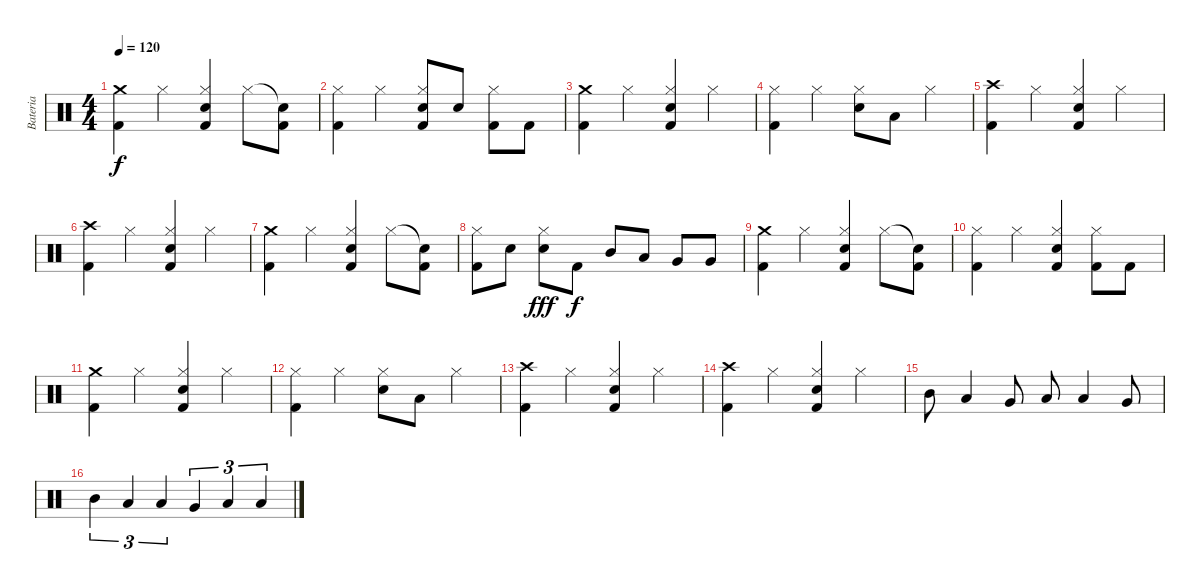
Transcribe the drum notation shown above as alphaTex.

\track ("Bateria" "Bateria") {instrument percussion}
\staff {score}
\articulation defaults
\ts (4 4)
\tempo 120
\clef neutral
\ks c
("Crash medium (hit)" "Kick (hit) 2").4{dy f} "Hi-Hat (closed)".4 ("Hi-Hat (closed)" "Electric Snare (hit)" "Kick (hit) 2").4 "Hi-Hat (closed)".8 ("Snare (hit)"{t} "Kick (hit) 2").8 |
("Hi-Hat (closed)" "Kick (hit) 2").4 "Hi-Hat (closed)".4 ("Hi-Hat (closed)" "Electric Snare (hit)" "Kick (hit) 2").8 "Electric Snare (hit)".8 ("Hi-Hat (closed)" "Kick (hit) 2").8 "Kick (hit) 2".8 |
("Crash medium (hit)" "Kick (hit) 2").4 "Hi-Hat (closed)".4 ("Hi-Hat (closed)" "Electric Snare (hit)" "Kick (hit) 2").4 "Hi-Hat (closed)".4 |
("Hi-Hat (closed)" "Kick (hit) 2").4 "Hi-Hat (closed)".4 ("Hi-Hat (closed)" "Electric Snare (hit)").8 "Low Tom (hit)".8 "Hi-Hat (closed)".4 |
("Crash high (hit)" "Kick (hit) 2").4 "Hi-Hat (closed)".4 ("Hi-Hat (closed)" "Electric Snare (hit)" "Kick (hit) 2").4 "Hi-Hat (closed)".4 |
("Crash high (hit)" "Kick (hit) 2").4 "Hi-Hat (closed)".4 ("Hi-Hat (closed)" "Electric Snare (hit)" "Kick (hit) 2").4 "Hi-Hat (closed)".4 |
("Crash medium (hit)" "Kick (hit) 2").4 "Hi-Hat (closed)".4 ("Hi-Hat (closed)" "Electric Snare (hit)" "Kick (hit) 2").4 "Hi-Hat (closed)".8 ("Snare (hit)"{t} "Kick (hit) 2").8 |
("Hi-Hat (closed)" "Kick (hit) 2").8 "Electric Snare (hit)".8 ("Hi-Hat (closed)" "Electric Snare (hit)").8{dy fff} "Kick (hit) 2".8{dy f} "Mid Tom (hit)".8 "Low Tom (hit)".8 "Very Low Tom (hit)".8 "Very Low Tom (hit)".8 |
("Crash medium (hit)" "Kick (hit) 2").4 "Hi-Hat (closed)".4 ("Hi-Hat (closed)" "Electric Snare (hit)" "Kick (hit) 2").4 "Hi-Hat (closed)".8 ("Snare (hit)"{t} "Kick (hit) 2").8 |
("Hi-Hat (closed)" "Kick (hit) 2").4 "Hi-Hat (closed)".4 ("Hi-Hat (closed)" "Electric Snare (hit)" "Kick (hit) 2").4 ("Hi-Hat (closed)" "Kick (hit) 2").8 "Kick (hit) 2".8 |
("Crash medium (hit)" "Kick (hit) 2").4 "Hi-Hat (closed)".4 ("Hi-Hat (closed)" "Electric Snare (hit)" "Kick (hit) 2").4 "Hi-Hat (closed)".4 |
("Hi-Hat (closed)" "Kick (hit) 2").4 "Hi-Hat (closed)".4 ("Hi-Hat (closed)" "Electric Snare (hit)").8 "Low Tom (hit)".8 "Hi-Hat (closed)".4 |
("Crash high (hit)" "Kick (hit) 2").4 "Hi-Hat (closed)".4 ("Hi-Hat (closed)" "Electric Snare (hit)" "Kick (hit) 2").4 "Hi-Hat (closed)".4 |
("Crash high (hit)" "Kick (hit) 2").4 "Hi-Hat (closed)".4 ("Hi-Hat (closed)" "Electric Snare (hit)" "Kick (hit) 2").4 "Hi-Hat (closed)".4 |
"Mid Tom (hit)".8 "Low Tom (hit)".4 "Very Low Tom (hit)".8 "Low Tom (hit)".8 "Low Tom (hit)".4 "Very Low Tom (hit)".8 |
"Mid Tom (hit)".4{tu (3 2)} "Low Tom (hit)".4{tu (3 2)} "Low Tom (hit)".4{tu (3 2)} "Very Low Tom (hit)".4{tu (3 2)} "Low Tom (hit)".4{tu (3 2)} "Low Tom (hit)".4{tu (3 2)}
